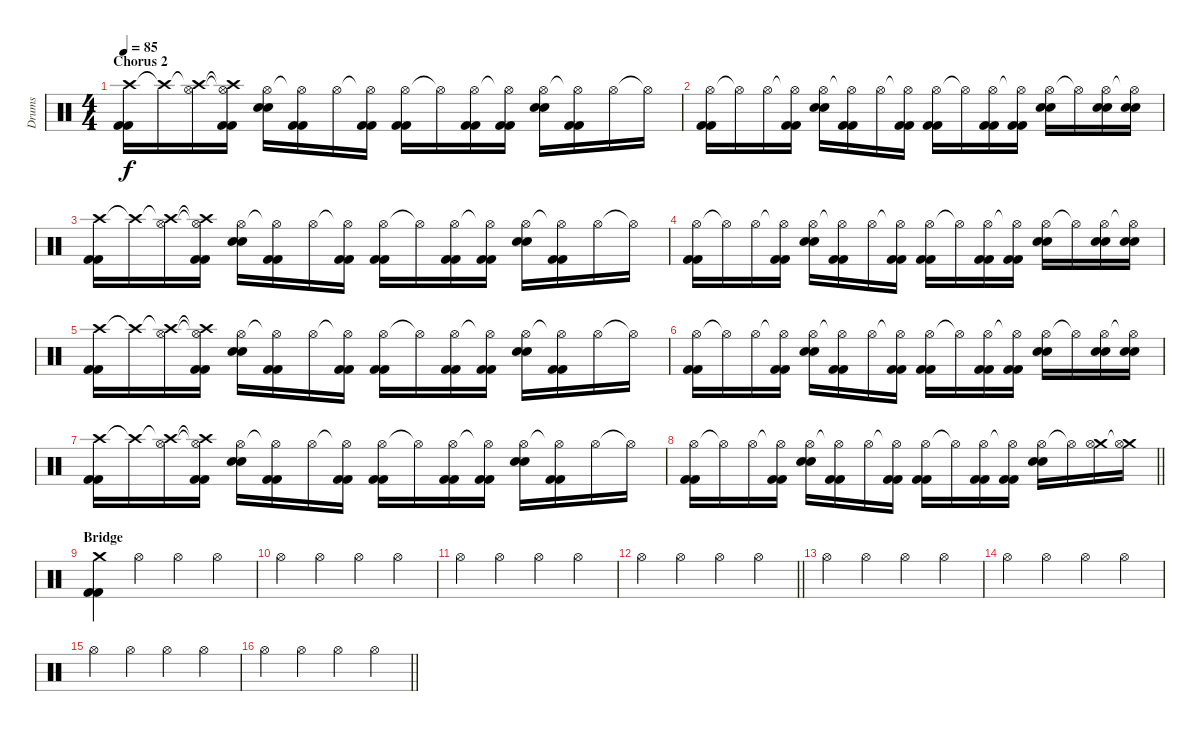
\track ("Drums" "Drums") {instrument percussion}
\staff {score}
\articulation defaults
\ts (4 4)
\section ("" "Chorus 2")
\tempo 85
\clef neutral
\ks c
("Crash high (hit)" "Kick (hit) 2" "Kick (hit) 2").16{dy f} "Crash high (hit)"{t}.16 ("Crash high (hit)"{t} "Hi-Hat (open)").16 ("Crash high (hit)"{t} "Hi-Hat (open)"{t} "Kick (hit) 2" "Kick (hit) 2").16 ("Hi-Hat (open)" "Snare (hit) 2" "Snare (hit) 2").16 ("Hi-Hat (open)"{t} "Kick (hit) 2" "Kick (hit) 2").16 "Hi-Hat (open)".16 ("Hi-Hat (open)"{t} "Kick (hit) 2" "Kick (hit) 2").16 ("Hi-Hat (open)" "Kick (hit) 2" "Kick (hit) 2").16 "Hi-Hat (open)"{t}.16 ("Hi-Hat (open)" "Kick (hit) 2" "Kick (hit) 2").16 ("Hi-Hat (open)"{t} "Kick (hit) 2" "Kick (hit) 2").16 ("Hi-Hat (open)" "Snare (hit) 2" "Snare (hit) 2").16 ("Hi-Hat (open)"{t} "Kick (hit) 2" "Kick (hit) 2").16 "Hi-Hat (open)".16 "Hi-Hat (open)"{t}.16 |
("Hi-Hat (open)" "Kick (hit) 2" "Kick (hit) 2").16 "Hi-Hat (open)"{t}.16 "Hi-Hat (open)".16 ("Hi-Hat (open)"{t} "Kick (hit) 2" "Kick (hit) 2").16 ("Hi-Hat (open)" "Snare (hit) 2" "Snare (hit) 2").16 ("Hi-Hat (open)"{t} "Kick (hit) 2" "Kick (hit) 2").16 "Hi-Hat (open)".16 ("Hi-Hat (open)"{t} "Kick (hit) 2" "Kick (hit) 2").16 ("Hi-Hat (open)" "Kick (hit) 2" "Kick (hit) 2").16 "Hi-Hat (open)"{t}.16 ("Hi-Hat (open)" "Kick (hit) 2" "Kick (hit) 2").16 ("Hi-Hat (open)"{t} "Kick (hit) 2" "Kick (hit) 2").16 ("Hi-Hat (open)" "Snare (hit) 2" "Snare (hit) 2").16 "Hi-Hat (open)"{t}.16 ("Hi-Hat (open)" "Snare (hit) 2" "Snare (hit) 2").16 ("Hi-Hat (open)"{t} "Snare (hit) 2" "Snare (hit) 2").16 |
("Crash high (hit)" "Kick (hit) 2" "Kick (hit) 2").16 "Crash high (hit)"{t}.16 ("Crash high (hit)"{t} "Hi-Hat (open)").16 ("Crash high (hit)"{t} "Hi-Hat (open)"{t} "Kick (hit) 2" "Kick (hit) 2").16 ("Hi-Hat (open)" "Snare (hit) 2" "Snare (hit) 2").16 ("Hi-Hat (open)"{t} "Kick (hit) 2" "Kick (hit) 2").16 "Hi-Hat (open)".16 ("Hi-Hat (open)"{t} "Kick (hit) 2" "Kick (hit) 2").16 ("Hi-Hat (open)" "Kick (hit) 2" "Kick (hit) 2").16 "Hi-Hat (open)"{t}.16 ("Hi-Hat (open)" "Kick (hit) 2" "Kick (hit) 2").16 ("Hi-Hat (open)"{t} "Kick (hit) 2" "Kick (hit) 2").16 ("Hi-Hat (open)" "Snare (hit) 2" "Snare (hit) 2").16 ("Hi-Hat (open)"{t} "Kick (hit) 2" "Kick (hit) 2").16 "Hi-Hat (open)".16 "Hi-Hat (open)"{t}.16 |
("Hi-Hat (open)" "Kick (hit) 2" "Kick (hit) 2").16 "Hi-Hat (open)"{t}.16 "Hi-Hat (open)".16 ("Hi-Hat (open)"{t} "Kick (hit) 2" "Kick (hit) 2").16 ("Hi-Hat (open)" "Snare (hit) 2" "Snare (hit) 2").16 ("Hi-Hat (open)"{t} "Kick (hit) 2" "Kick (hit) 2").16 "Hi-Hat (open)".16 ("Hi-Hat (open)"{t} "Kick (hit) 2" "Kick (hit) 2").16 ("Hi-Hat (open)" "Kick (hit) 2" "Kick (hit) 2").16 "Hi-Hat (open)"{t}.16 ("Hi-Hat (open)" "Kick (hit) 2" "Kick (hit) 2").16 ("Hi-Hat (open)"{t} "Kick (hit) 2" "Kick (hit) 2").16 ("Hi-Hat (open)" "Snare (hit) 2" "Snare (hit) 2").16 "Hi-Hat (open)"{t}.16 ("Hi-Hat (open)" "Snare (hit) 2" "Snare (hit) 2").16 ("Hi-Hat (open)"{t} "Snare (hit) 2" "Snare (hit) 2").16 |
("Crash high (hit)" "Kick (hit) 2" "Kick (hit) 2").16 "Crash high (hit)"{t}.16 ("Crash high (hit)"{t} "Hi-Hat (open)").16 ("Crash high (hit)"{t} "Hi-Hat (open)"{t} "Kick (hit) 2" "Kick (hit) 2").16 ("Hi-Hat (open)" "Snare (hit) 2" "Snare (hit) 2").16 ("Hi-Hat (open)"{t} "Kick (hit) 2" "Kick (hit) 2").16 "Hi-Hat (open)".16 ("Hi-Hat (open)"{t} "Kick (hit) 2" "Kick (hit) 2").16 ("Hi-Hat (open)" "Kick (hit) 2" "Kick (hit) 2").16 "Hi-Hat (open)"{t}.16 ("Hi-Hat (open)" "Kick (hit) 2" "Kick (hit) 2").16 ("Hi-Hat (open)"{t} "Kick (hit) 2" "Kick (hit) 2").16 ("Hi-Hat (open)" "Snare (hit) 2" "Snare (hit) 2").16 ("Hi-Hat (open)"{t} "Kick (hit) 2" "Kick (hit) 2").16 "Hi-Hat (open)".16 "Hi-Hat (open)"{t}.16 |
("Hi-Hat (open)" "Kick (hit) 2" "Kick (hit) 2").16 "Hi-Hat (open)"{t}.16 "Hi-Hat (open)".16 ("Hi-Hat (open)"{t} "Kick (hit) 2" "Kick (hit) 2").16 ("Hi-Hat (open)" "Snare (hit) 2" "Snare (hit) 2").16 ("Hi-Hat (open)"{t} "Kick (hit) 2" "Kick (hit) 2").16 "Hi-Hat (open)".16 ("Hi-Hat (open)"{t} "Kick (hit) 2" "Kick (hit) 2").16 ("Hi-Hat (open)" "Kick (hit) 2" "Kick (hit) 2").16 "Hi-Hat (open)"{t}.16 ("Hi-Hat (open)" "Kick (hit) 2" "Kick (hit) 2").16 ("Hi-Hat (open)"{t} "Kick (hit) 2" "Kick (hit) 2").16 ("Hi-Hat (open)" "Snare (hit) 2" "Snare (hit) 2").16 "Hi-Hat (open)"{t}.16 ("Hi-Hat (open)" "Snare (hit) 2" "Snare (hit) 2").16 ("Hi-Hat (open)"{t} "Snare (hit) 2" "Snare (hit) 2").16 |
("Crash high (hit)" "Kick (hit) 2" "Kick (hit) 2").16 "Crash high (hit)"{t}.16 ("Crash high (hit)"{t} "Hi-Hat (open)").16 ("Crash high (hit)"{t} "Hi-Hat (open)"{t} "Kick (hit) 2" "Kick (hit) 2").16 ("Hi-Hat (open)" "Snare (hit) 2" "Snare (hit) 2").16 ("Hi-Hat (open)"{t} "Kick (hit) 2" "Kick (hit) 2").16 "Hi-Hat (open)".16 ("Hi-Hat (open)"{t} "Kick (hit) 2" "Kick (hit) 2").16 ("Hi-Hat (open)" "Kick (hit) 2" "Kick (hit) 2").16 "Hi-Hat (open)"{t}.16 ("Hi-Hat (open)" "Kick (hit) 2" "Kick (hit) 2").16 ("Hi-Hat (open)"{t} "Kick (hit) 2" "Kick (hit) 2").16 ("Hi-Hat (open)" "Snare (hit) 2" "Snare (hit) 2").16 ("Hi-Hat (open)"{t} "Kick (hit) 2" "Kick (hit) 2").16 "Hi-Hat (open)".16 "Hi-Hat (open)"{t}.16 |
\barLineRight lightlight
("Hi-Hat (open)" "Kick (hit) 2" "Kick (hit) 2").16 "Hi-Hat (open)"{t}.16 "Hi-Hat (open)".16 ("Hi-Hat (open)"{t} "Kick (hit) 2" "Kick (hit) 2").16 ("Hi-Hat (open)" "Snare (hit) 2" "Snare (hit) 2").16 ("Hi-Hat (open)"{t} "Kick (hit) 2" "Kick (hit) 2").16 "Hi-Hat (open)".16 ("Hi-Hat (open)"{t} "Kick (hit) 2" "Kick (hit) 2").16 ("Hi-Hat (open)" "Kick (hit) 2" "Kick (hit) 2").16 "Hi-Hat (open)"{t}.16 ("Hi-Hat (open)" "Kick (hit) 2" "Kick (hit) 2").16 ("Hi-Hat (open)"{t} "Kick (hit) 2" "Kick (hit) 2").16 ("Hi-Hat (open)" "Snare (hit) 2" "Snare (hit) 2").16 "Hi-Hat (open)"{t}.16 ("Crash medium (hit)" "Hi-Hat (open)").16 ("Crash medium (hit)" "Hi-Hat (open)"{t}).16 |
\section ("" "Bridge")
("Crash medium (hit)" "Kick (hit) 2" "Kick (hit) 2").4 "Hi-Hat (open)".4 "Hi-Hat (open)".4 "Hi-Hat (open)".4 |
"Hi-Hat (open)".4 "Hi-Hat (open)".4 "Hi-Hat (open)".4 "Hi-Hat (open)".4 |
"Hi-Hat (open)".4 "Hi-Hat (open)".4 "Hi-Hat (open)".4 "Hi-Hat (open)".4 |
\barLineRight lightlight "Hi-Hat (open)".4 "Hi-Hat (open)".4 "Hi-Hat (open)".4 "Hi-Hat (open)".4
|
"Hi-Hat (open)".4 "Hi-Hat (open)".4 "Hi-Hat (open)".4 "Hi-Hat (open)".4 |
"Hi-Hat (open)".4 "Hi-Hat (open)".4 "Hi-Hat (open)".4 "Hi-Hat (open)".4 |
"Hi-Hat (open)".4 "Hi-Hat (open)".4 "Hi-Hat (open)".4 "Hi-Hat (open)".4 |
\barLineRight lightlight "Hi-Hat (open)".4 "Hi-Hat (open)".4 "Hi-Hat (open)".4 "Hi-Hat (open)".4
